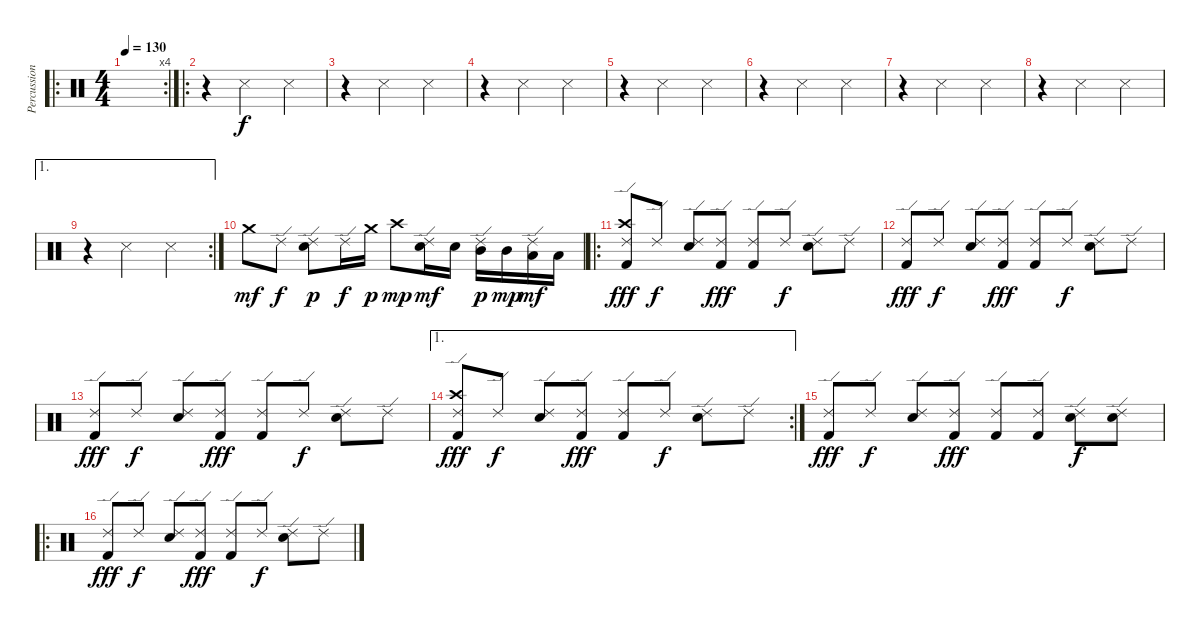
\track ("Percussion" "Percussion") {instrument percussion}
\staff {score}
\articulation defaults
\ro
\rc 4
\ts (4 4)
\tempo 130
\clef neutral
\ks c
|
\ro
r.4 "Snare (side stick) 3".2 "Snare (side stick) 3".4 |
r.4 "Snare (side stick) 3".2 "Snare (side stick) 3".4 |
r.4 "Snare (side stick) 3".2 "Snare (side stick) 3".4 |
r.4 "Snare (side stick) 3".2 "Snare (side stick) 3".4 |
r.4 "Snare (side stick) 3".2 "Snare (side stick) 3".4 |
r.4 "Snare (side stick) 3".2 "Snare (side stick) 3".4 |
r.4 "Snare (side stick) 3".2 "Snare (side stick) 3".4 |
\ae 1
\rc 2
r.4 "Snare (side stick) 3".2 "Snare (side stick) 3".4 |
"Crash medium (hit)".8{dy mf} "Ride (edge) 2".8{dy f} ("Ride (edge) 2" "Electric Snare (hit)").8{dy p} "Ride (edge) 2".16{dy f} "Crash medium (hit)".16{dy p} "Crash high (hit)".8{dy mp} ("Ride (edge) 2" "Electric Snare (hit)").16{dy mf} "Electric Snare (hit)".16 ("Mid Tom (hit)" "Ride (edge) 2").16{dy p} "Mid Tom (hit)".16{dy mp} ("Ride (edge) 2" "Low Tom (hit)").16{dy mf} "Low Tom (hit)".16 |
\ro
("Crash high (hit)" "Ride (edge) 2" "Kick (hit) 2").8{dy fff} "Ride (edge) 2".8{dy f} ("Ride (edge) 2" "Electric Snare (hit)").8 ("Ride (edge) 2" "Kick (hit) 2").8{dy fff} ("Ride (edge) 2" "Kick (hit) 2").8 "Ride (edge) 2".8{dy f} ("Ride (edge) 2" "Electric Snare (hit)").8 "Ride (edge) 2".8 |
("Ride (edge) 2" "Kick (hit) 2").8{dy fff} "Ride (edge) 2".8{dy f} ("Ride (edge) 2" "Electric Snare (hit)").8 ("Ride (edge) 2" "Kick (hit) 2").8{dy fff} ("Ride (edge) 2" "Kick (hit) 2").8 "Ride (edge) 2".8{dy f} ("Ride (edge) 2" "Electric Snare (hit)").8 "Ride (edge) 2".8 |
("Ride (edge) 2" "Kick (hit) 2").8{dy fff} "Ride (edge) 2".8{dy f} ("Ride (edge) 2" "Electric Snare (hit)").8 ("Ride (edge) 2" "Kick (hit) 2").8{dy fff} ("Ride (edge) 2" "Kick (hit) 2").8 "Ride (edge) 2".8{dy f} ("Ride (edge) 2" "Electric Snare (hit)").8 "Ride (edge) 2".8 |
\ae 1
\rc 2
("Crash high (hit)" "Ride (edge) 2" "Kick (hit) 2").8{dy fff} "Ride (edge) 2".8{dy f} ("Ride (edge) 2" "Electric Snare (hit)").8 ("Ride (edge) 2" "Kick (hit) 2").8{dy fff} ("Ride (edge) 2" "Kick (hit) 2").8 "Ride (edge) 2".8{dy f} ("Ride (edge) 2" "Electric Snare (hit)").8 "Ride (edge) 2".8 |
("Ride (edge) 2" "Kick (hit) 2").8{dy fff} "Ride (edge) 2".8{dy f} ("Ride (edge) 2" "Electric Snare (hit)").8 ("Ride (edge) 2" "Kick (hit) 2").8{dy fff} ("Ride (edge) 2" "Kick (hit) 2").8 ("Ride (edge) 2" "Kick (hit) 2").8 ("Ride (edge) 2" "Electric Snare (hit)").8{dy f} ("Ride (edge) 2" "Electric Snare (hit)").8 |
\ro
("Ride (edge) 2" "Kick (hit) 2").8{dy fff} "Ride (edge) 2".8{dy f} ("Ride (edge) 2" "Electric Snare (hit)").8 ("Ride (edge) 2" "Kick (hit) 2").8{dy fff} ("Ride (edge) 2" "Kick (hit) 2").8 "Ride (edge) 2".8{dy f} ("Ride (edge) 2" "Electric Snare (hit)").8 "Ride (edge) 2".8
